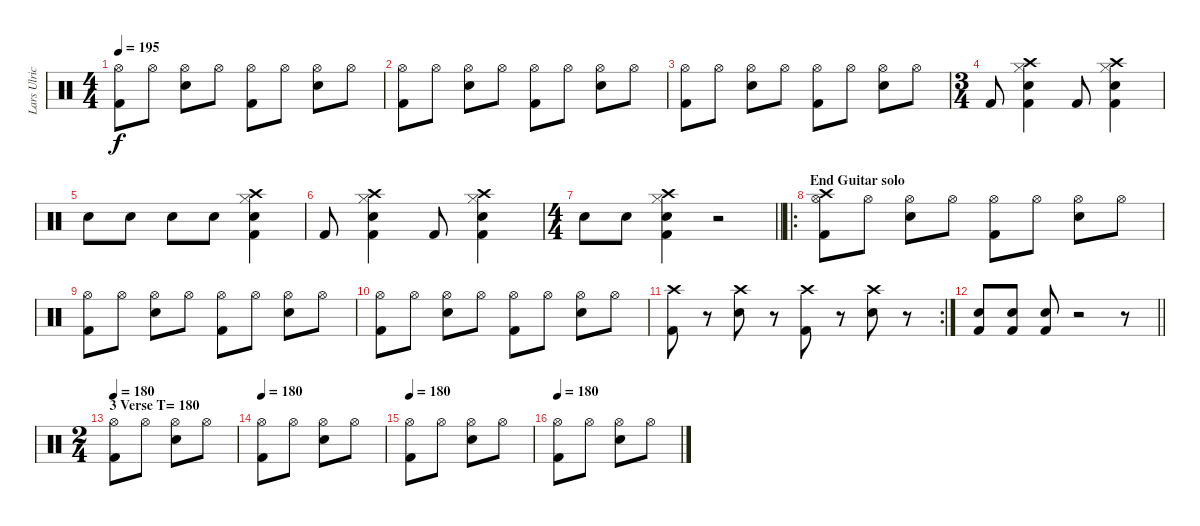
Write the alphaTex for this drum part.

\track ("Lars Ulrich" "Lars Ulric") {instrument percussion}
\staff {score}
\articulation defaults
\ts (4 4)
\tempo 195
\clef neutral
\ks c
("Kick (hit) 2" "Hi-Hat (open)").8{dy f} "Hi-Hat (open)".8 ("Snare (hit) 2" "Hi-Hat (open)").8 "Hi-Hat (open)".8 ("Kick (hit) 2" "Hi-Hat (open)").8 "Hi-Hat (open)".8 ("Snare (hit) 2" "Hi-Hat (open)").8 "Hi-Hat (open)".8 |
("Kick (hit) 2" "Hi-Hat (open)").8 "Hi-Hat (open)".8 ("Snare (hit) 2" "Hi-Hat (open)").8 "Hi-Hat (open)".8 ("Kick (hit) 2" "Hi-Hat (open)").8 "Hi-Hat (open)".8 ("Snare (hit) 2" "Hi-Hat (open)").8 "Hi-Hat (open)".8 |
("Kick (hit) 2" "Hi-Hat (open)").8 "Hi-Hat (open)".8 ("Snare (hit) 2" "Hi-Hat (open)").8 "Hi-Hat (open)".8 ("Kick (hit) 2" "Hi-Hat (open)").8 "Hi-Hat (open)".8 ("Snare (hit) 2" "Hi-Hat (open)").8 "Hi-Hat (open)".8 |
\ts (3 4)
"Kick (hit) 2".8 ("Kick (hit) 2" "Snare (hit) 2" "Hi-Hat (closed)" "Crash high (hit)").4 "Kick (hit) 2".8 ("Kick (hit) 2" "Snare (hit) 2" "Hi-Hat (closed)" "Crash high (hit)").4 |
"Snare (hit) 2".8 "Snare (hit) 2".8 "Snare (hit) 2".8 "Snare (hit) 2".8 ("Kick (hit) 2" "Snare (hit) 2" "Hi-Hat (closed)" "Crash high (hit)").4 |
"Kick (hit) 2".8 ("Kick (hit) 2" "Snare (hit) 2" "Hi-Hat (closed)" "Crash high (hit)").4 "Kick (hit) 2".8 ("Kick (hit) 2" "Snare (hit) 2" "Hi-Hat (closed)" "Crash high (hit)").4 |
\ts (4 4)
\barLineRight lightlight "Snare (hit) 2".8 "Snare (hit) 2".8
("Kick (hit) 2" "Snare (hit) 2" "Hi-Hat (closed)" "Crash high (hit)").4 r.2 |
\ro
\section ("" "End Guitar solo")
("Kick (hit) 2" "Hi-Hat (open)" "Crash high (hit)").8 "Hi-Hat (open)".8 ("Snare (hit) 2" "Hi-Hat (open)").8 "Hi-Hat (open)".8 ("Kick (hit) 2" "Hi-Hat (open)").8 "Hi-Hat (open)".8 ("Snare (hit) 2" "Hi-Hat (open)").8 "Hi-Hat (open)".8 |
("Kick (hit) 2" "Hi-Hat (open)").8 "Hi-Hat (open)".8 ("Snare (hit) 2" "Hi-Hat (open)").8 "Hi-Hat (open)".8 ("Kick (hit) 2" "Hi-Hat (open)").8 "Hi-Hat (open)".8 ("Snare (hit) 2" "Hi-Hat (open)").8 "Hi-Hat (open)".8 |
("Kick (hit) 2" "Hi-Hat (open)").8 "Hi-Hat (open)".8 ("Snare (hit) 2" "Hi-Hat (open)").8 "Hi-Hat (open)".8 ("Kick (hit) 2" "Hi-Hat (open)").8 "Hi-Hat (open)".8 ("Snare (hit) 2" "Hi-Hat (open)").8 "Hi-Hat (open)".8 |
\rc 2
("Crash high (hit)" "Kick (hit) 2").8 r.8 ("Crash high (hit)" "Snare (hit) 2").8 r.8 ("Crash high (hit)" "Kick (hit) 2").8 r.8 ("Crash high (hit)" "Snare (hit) 2").8 r.8 |
\barLineRight lightlight
("Kick (hit) 2" "Snare (hit) 2").8 ("Kick (hit) 2" "Snare (hit) 2").8 ("Kick (hit) 2" "Snare (hit) 2").8 r.2 r.8 |
\ts (2 4)
\section ("" "3 Verse T= 180")
\tempo 180
("Kick (hit) 2" "Hi-Hat (open)").8 "Hi-Hat (open)".8 ("Snare (hit) 2" "Hi-Hat (open)").8 "Hi-Hat (open)".8 |
\tempo 180
("Kick (hit) 2" "Hi-Hat (open)").8 "Hi-Hat (open)".8 ("Snare (hit) 2" "Hi-Hat (open)").8 "Hi-Hat (open)".8 |
\tempo 180
("Kick (hit) 2" "Hi-Hat (open)").8 "Hi-Hat (open)".8 ("Snare (hit) 2" "Hi-Hat (open)").8 "Hi-Hat (open)".8 |
\tempo 180
("Kick (hit) 2" "Hi-Hat (open)").8 "Hi-Hat (open)".8 ("Snare (hit) 2" "Hi-Hat (open)").8 "Hi-Hat (open)".8
